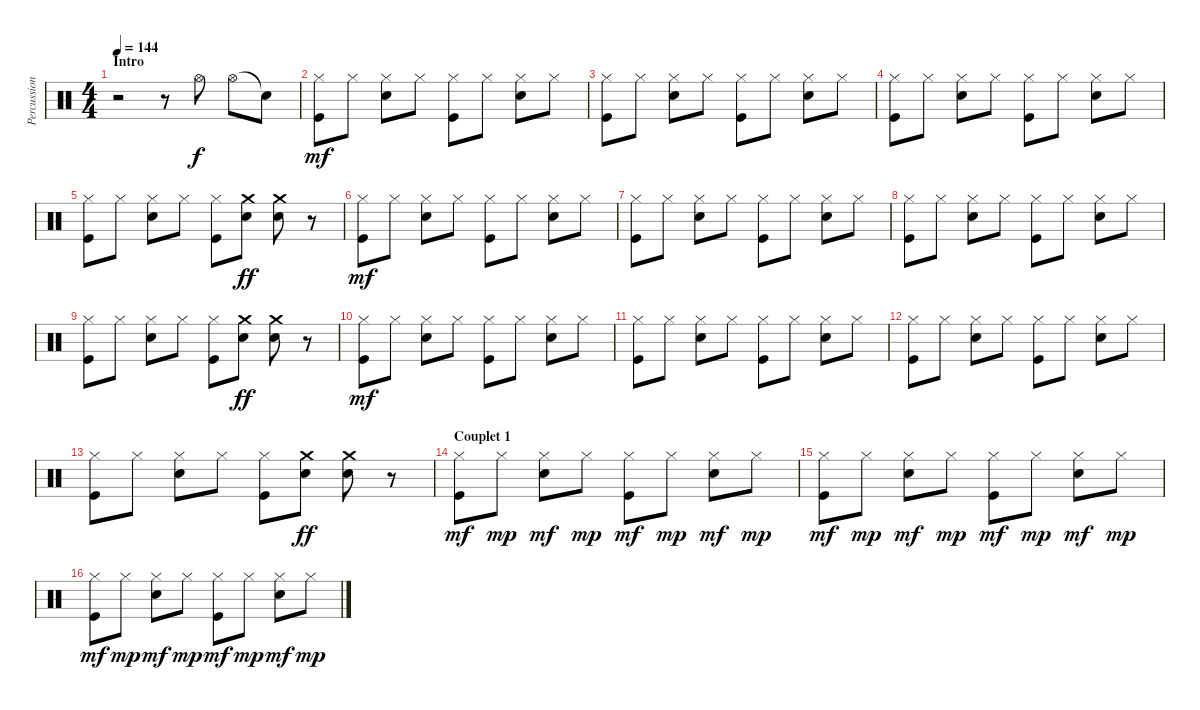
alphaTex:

\track ("Percussions" "Percussion") {instrument percussion}
\staff {score}
\articulation defaults
\ts (4 4)
\section ("" "Intro")
\tempo 144
\clef neutral
\ks c
r.2{dy f} r.8 "Hi-Hat (open)".8 "Hi-Hat (open)".8 "Snare (hit)"{t}.8 |
("Hi-Hat (closed)" "Kick (hit)").8{dy mf} "Hi-Hat (closed)".8 ("Hi-Hat (closed)" "Snare (hit) 2").8 "Hi-Hat (closed)".8 ("Hi-Hat (closed)" "Kick (hit)").8 "Hi-Hat (closed)".8 ("Hi-Hat (closed)" "Snare (hit) 2").8 "Hi-Hat (closed)".8 |
("Hi-Hat (closed)" "Kick (hit)").8 "Hi-Hat (closed)".8 ("Hi-Hat (closed)" "Snare (hit) 2").8 "Hi-Hat (closed)".8 ("Hi-Hat (closed)" "Kick (hit)").8 "Hi-Hat (closed)".8 ("Hi-Hat (closed)" "Snare (hit) 2").8 "Hi-Hat (closed)".8 |
("Hi-Hat (closed)" "Kick (hit)").8 "Hi-Hat (closed)".8 ("Hi-Hat (closed)" "Snare (hit) 2").8 "Hi-Hat (closed)".8 ("Hi-Hat (closed)" "Kick (hit)").8 "Hi-Hat (closed)".8 ("Hi-Hat (closed)" "Snare (hit) 2").8 "Hi-Hat (closed)".8 |
("Hi-Hat (closed)" "Kick (hit)").8 "Hi-Hat (closed)".8 ("Hi-Hat (closed)" "Snare (hit) 2").8 "Hi-Hat (closed)".8 ("Hi-Hat (closed)" "Kick (hit)").8 ("Crash medium (hit)" "Snare (hit) 2").8{dy ff} ("Crash medium (hit)" "Snare (hit) 2").8 r.8 |
("Hi-Hat (closed)" "Kick (hit)").8{dy mf} "Hi-Hat (closed)".8 ("Hi-Hat (closed)" "Snare (hit) 2").8 "Hi-Hat (closed)".8 ("Hi-Hat (closed)" "Kick (hit)").8 "Hi-Hat (closed)".8 ("Hi-Hat (closed)" "Snare (hit) 2").8 "Hi-Hat (closed)".8 |
("Hi-Hat (closed)" "Kick (hit)").8 "Hi-Hat (closed)".8 ("Hi-Hat (closed)" "Snare (hit) 2").8 "Hi-Hat (closed)".8 ("Hi-Hat (closed)" "Kick (hit)").8 "Hi-Hat (closed)".8 ("Hi-Hat (closed)" "Snare (hit) 2").8 "Hi-Hat (closed)".8 |
("Hi-Hat (closed)" "Kick (hit)").8 "Hi-Hat (closed)".8 ("Hi-Hat (closed)" "Snare (hit) 2").8 "Hi-Hat (closed)".8 ("Hi-Hat (closed)" "Kick (hit)").8 "Hi-Hat (closed)".8 ("Hi-Hat (closed)" "Snare (hit) 2").8 "Hi-Hat (closed)".8 |
("Hi-Hat (closed)" "Kick (hit)").8 "Hi-Hat (closed)".8 ("Hi-Hat (closed)" "Snare (hit) 2").8 "Hi-Hat (closed)".8 ("Hi-Hat (closed)" "Kick (hit)").8 ("Crash medium (hit)" "Snare (hit) 2").8{dy ff} ("Crash medium (hit)" "Snare (hit) 2").8 r.8 |
("Hi-Hat (closed)" "Kick (hit)").8{dy mf} "Hi-Hat (closed)".8 ("Hi-Hat (closed)" "Snare (hit) 2").8 "Hi-Hat (closed)".8 ("Hi-Hat (closed)" "Kick (hit)").8 "Hi-Hat (closed)".8 ("Hi-Hat (closed)" "Snare (hit) 2").8 "Hi-Hat (closed)".8 |
("Hi-Hat (closed)" "Kick (hit)").8 "Hi-Hat (closed)".8 ("Hi-Hat (closed)" "Snare (hit) 2").8 "Hi-Hat (closed)".8 ("Hi-Hat (closed)" "Kick (hit)").8 "Hi-Hat (closed)".8 ("Hi-Hat (closed)" "Snare (hit) 2").8 "Hi-Hat (closed)".8 |
("Hi-Hat (closed)" "Kick (hit)").8 "Hi-Hat (closed)".8 ("Hi-Hat (closed)" "Snare (hit) 2").8 "Hi-Hat (closed)".8 ("Hi-Hat (closed)" "Kick (hit)").8 "Hi-Hat (closed)".8 ("Hi-Hat (closed)" "Snare (hit) 2").8 "Hi-Hat (closed)".8 |
("Hi-Hat (closed)" "Kick (hit)").8 "Hi-Hat (closed)".8 ("Hi-Hat (closed)" "Snare (hit) 2").8 "Hi-Hat (closed)".8 ("Hi-Hat (closed)" "Kick (hit)").8 ("Crash medium (hit)" "Snare (hit) 2").8{dy ff} ("Crash medium (hit)" "Snare (hit) 2").8 r.8 |
\section ("" "Couplet 1")
("Hi-Hat (closed)" "Kick (hit)").8{dy mf} "Hi-Hat (closed)".8{dy mp} ("Hi-Hat (closed)" "Snare (hit) 2").8{dy mf} "Hi-Hat (closed)".8{dy mp} ("Hi-Hat (closed)" "Kick (hit)").8{dy mf} "Hi-Hat (closed)".8{dy mp} ("Hi-Hat (closed)" "Snare (hit) 2").8{dy mf} "Hi-Hat (closed)".8{dy mp} |
("Hi-Hat (closed)" "Kick (hit)").8{dy mf} "Hi-Hat (closed)".8{dy mp} ("Hi-Hat (closed)" "Snare (hit) 2").8{dy mf} "Hi-Hat (closed)".8{dy mp} ("Hi-Hat (closed)" "Kick (hit)").8{dy mf} "Hi-Hat (closed)".8{dy mp} ("Hi-Hat (closed)" "Snare (hit) 2").8{dy mf} "Hi-Hat (closed)".8{dy mp} |
("Hi-Hat (closed)" "Kick (hit)").8{dy mf} "Hi-Hat (closed)".8{dy mp} ("Hi-Hat (closed)" "Snare (hit) 2").8{dy mf} "Hi-Hat (closed)".8{dy mp} ("Hi-Hat (closed)" "Kick (hit)").8{dy mf} "Hi-Hat (closed)".8{dy mp} ("Hi-Hat (closed)" "Snare (hit) 2").8{dy mf} "Hi-Hat (closed)".8{dy mp}
